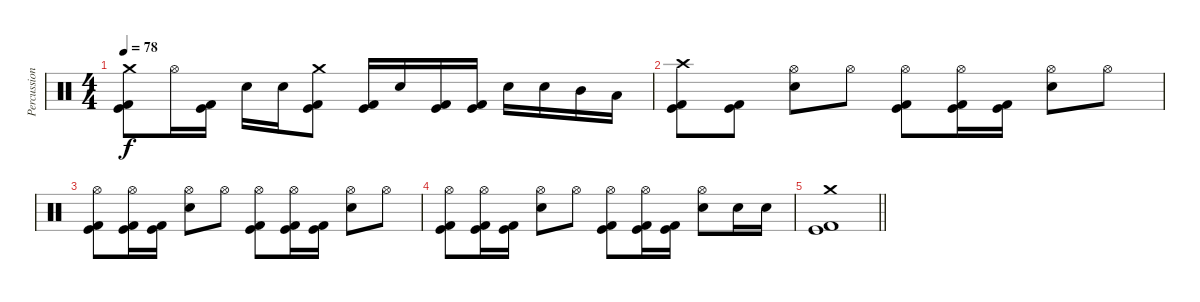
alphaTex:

\track ("Percussion" "Percussion") {instrument percussion}
\staff {score}
\articulation defaults
\ts (4 4)
\tempo 78
\clef neutral
\ks c
("Crash medium (hit)" "Kick (hit)" "Kick (hit) 2").8{dy f} "Hi-Hat (open)".16 ("Kick (hit)" "Kick (hit) 2").16 "Electric Snare (hit)".16 "Electric Snare (hit)".16 ("Crash medium (hit)" "Kick (hit)" "Kick (hit) 2").8 ("Kick (hit)" "Kick (hit) 2").16 "Electric Snare (hit)".16 ("Kick (hit)" "Kick (hit) 2").16 ("Kick (hit)" "Kick (hit) 2").16 "Electric Snare (hit)".16 "Electric Snare (hit)".16 "Mid Tom (hit)".16 "Low Tom (hit)".16 |
("Crash high (hit)" "Kick (hit)" "Kick (hit) 2").8 ("Kick (hit)" "Kick (hit) 2").8 ("Hi-Hat (open)" "Electric Snare (hit)").8 "Hi-Hat (open)".8 ("Hi-Hat (open)" "Kick (hit)" "Kick (hit) 2").8 ("Hi-Hat (open)" "Kick (hit)" "Kick (hit) 2").16 ("Kick (hit)" "Kick (hit) 2").16 ("Hi-Hat (open)" "Electric Snare (hit)").8 "Hi-Hat (open)".8 |
("Hi-Hat (open)" "Kick (hit)" "Kick (hit) 2").8 ("Hi-Hat (open)" "Kick (hit)" "Kick (hit) 2").16 ("Kick (hit)" "Kick (hit) 2").16 ("Hi-Hat (open)" "Electric Snare (hit)").8 "Hi-Hat (open)".8 ("Hi-Hat (open)" "Kick (hit)" "Kick (hit) 2").8 ("Hi-Hat (open)" "Kick (hit)" "Kick (hit) 2").16 ("Kick (hit)" "Kick (hit) 2").16 ("Hi-Hat (open)" "Electric Snare (hit)").8 "Hi-Hat (open)".8 |
("Hi-Hat (open)" "Kick (hit)" "Kick (hit) 2").8 ("Hi-Hat (open)" "Kick (hit)" "Kick (hit) 2").16 ("Kick (hit)" "Kick (hit) 2").16 ("Hi-Hat (open)" "Electric Snare (hit)").8 "Hi-Hat (open)".8 ("Hi-Hat (open)" "Kick (hit)" "Kick (hit) 2").8 ("Hi-Hat (open)" "Kick (hit)" "Kick (hit) 2").16 ("Kick (hit)" "Kick (hit) 2").16 ("Hi-Hat (open)" "Electric Snare (hit)").8 "Electric Snare (hit)".16 "Electric Snare (hit)".16 |
\barLineRight lightlight
("Crash medium (hit)" "Kick (hit)" "Kick (hit) 2").1
